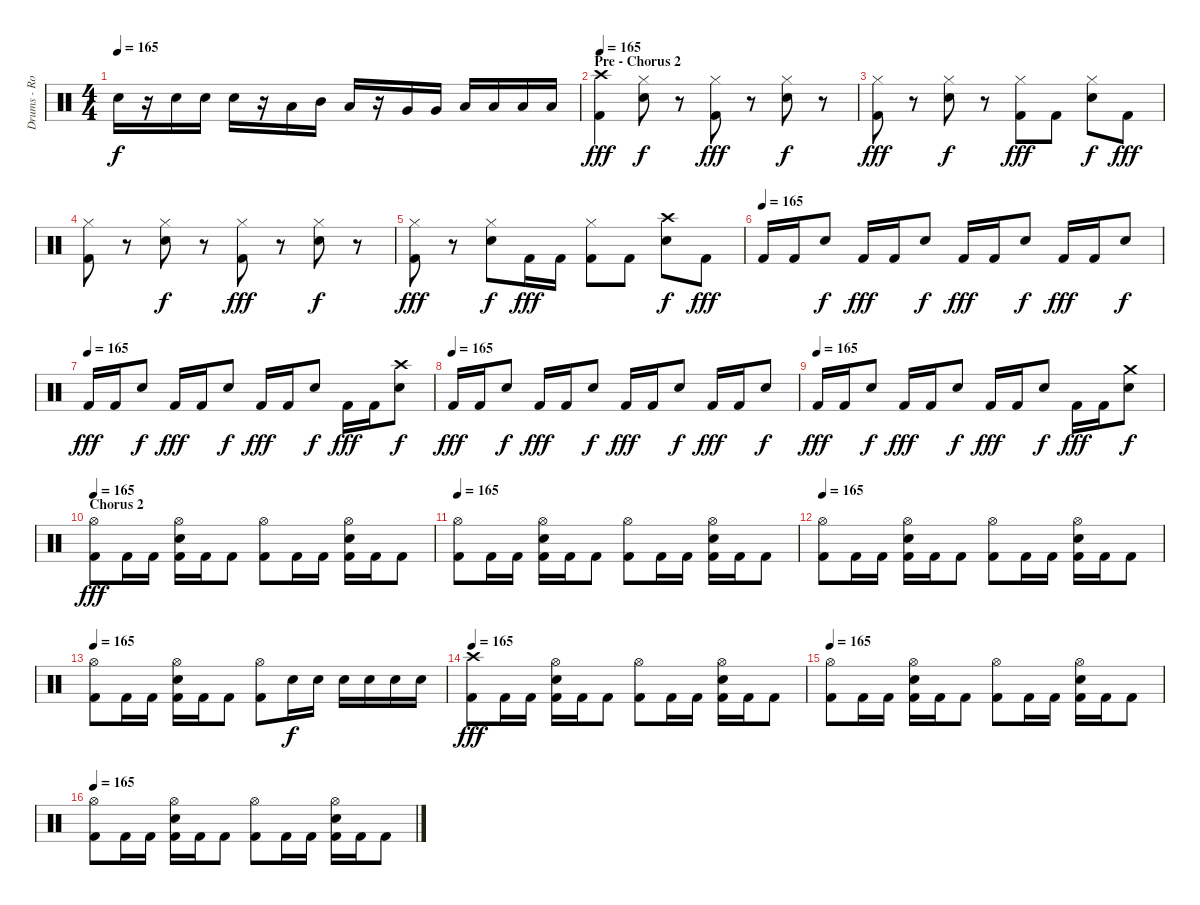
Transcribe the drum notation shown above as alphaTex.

\track ("Drums - Rodrigo" "Drums - Ro") {instrument percussion}
\staff {score}
\articulation defaults
\ts (4 4)
\tempo 165
\clef neutral
\ks c "Electric Snare (hit)".16{dy f}
r.16 "Electric Snare (hit)".16 "Electric Snare (hit)".16 "Electric Snare (hit)".16 r.16 "Low Tom (hit)".16 "Mid Tom (hit)".16 "Low Tom (hit)".16 r.16 "Very Low Tom (hit)".16 "Very Low Tom (hit)".16 "Low Floor Tom (hit)".16 "Low Floor Tom (hit)".16 "Low Floor Tom (hit)".16 "Low Floor Tom (hit)".16 |
\section ("" "Pre - Chorus 2")
\tempo 165
("Crash high (hit)" "Kick (hit) 2").4{dy fff} ("Hi-Hat (closed)" "Electric Snare (hit)").8{dy f} r.8 ("Hi-Hat (closed)" "Kick (hit) 2").8{dy fff} r.8 ("Hi-Hat (closed)" "Electric Snare (hit)").8{dy f} r.8 |
("Hi-Hat (closed)" "Kick (hit) 2").8{dy fff} r.8 ("Hi-Hat (closed)" "Electric Snare (hit)").8{dy f} r.8 ("Hi-Hat (closed)" "Kick (hit) 2").8{dy fff} "Kick (hit) 2".8 ("Hi-Hat (closed)" "Electric Snare (hit)").8{dy f} "Kick (hit) 2".8{dy fff} |
("Hi-Hat (closed)" "Kick (hit) 2").8 r.8 ("Hi-Hat (closed)" "Electric Snare (hit)").8{dy f} r.8 ("Hi-Hat (closed)" "Kick (hit) 2").8{dy fff} r.8 ("Hi-Hat (closed)" "Electric Snare (hit)").8{dy f} r.8 |
("Hi-Hat (closed)" "Kick (hit) 2").8{dy fff} r.8 ("Hi-Hat (closed)" "Electric Snare (hit)").8{dy f} "Kick (hit) 2".16{dy fff} "Kick (hit) 2".16 ("Hi-Hat (closed)" "Kick (hit) 2").8 "Kick (hit) 2".8 ("Crash high (hit)" "Electric Snare (hit)").8{dy f} "Kick (hit) 2".8{dy fff} |
\tempo (165)
"Kick (hit) 2".16 "Kick (hit) 2".16 "Electric Snare (hit)".8{dy f} "Kick (hit) 2".16{dy fff} "Kick (hit) 2".16 "Electric Snare (hit)".8{dy f} "Kick (hit) 2".16{dy fff} "Kick (hit) 2".16 "Electric Snare (hit)".8{dy f} "Kick (hit) 2".16{dy fff} "Kick (hit) 2".16 "Electric Snare (hit)".8{dy f} |
\tempo (165)
"Kick (hit) 2".16{dy fff} "Kick (hit) 2".16 "Electric Snare (hit)".8{dy f} "Kick (hit) 2".16{dy fff} "Kick (hit) 2".16 "Electric Snare (hit)".8{dy f} "Kick (hit) 2".16{dy fff} "Kick (hit) 2".16 "Electric Snare (hit)".8{dy f} "Kick (hit) 2".16{dy fff} "Kick (hit) 2".16 ("Crash high (hit)" "Electric Snare (hit)").8{dy f} |
\tempo (165)
"Kick (hit) 2".16{dy fff} "Kick (hit) 2".16 "Electric Snare (hit)".8{dy f} "Kick (hit) 2".16{dy fff} "Kick (hit) 2".16 "Electric Snare (hit)".8{dy f} "Kick (hit) 2".16{dy fff} "Kick (hit) 2".16 "Electric Snare (hit)".8{dy f} "Kick (hit) 2".16{dy fff} "Kick (hit) 2".16 "Electric Snare (hit)".8{dy f} |
\tempo (165)
"Kick (hit) 2".16{dy fff} "Kick (hit) 2".16 "Electric Snare (hit)".8{dy f} "Kick (hit) 2".16{dy fff} "Kick (hit) 2".16 "Electric Snare (hit)".8{dy f} "Kick (hit) 2".16{dy fff} "Kick (hit) 2".16 "Electric Snare (hit)".8{dy f} "Kick (hit) 2".16{dy fff} "Kick (hit) 2".16 ("Crash medium (hit)" "Electric Snare (hit)").8{dy f} |
\section ("" "Chorus 2")
\tempo 165
("Hi-Hat (open)" "Kick (hit) 2").8{dy fff} "Kick (hit) 2".16 "Kick (hit) 2".16 ("Hi-Hat (open)" "Electric Snare (hit)" "Kick (hit) 2").16 "Kick (hit) 2".16 "Kick (hit) 2".8 ("Hi-Hat (open)" "Kick (hit) 2").8 "Kick (hit) 2".16 "Kick (hit) 2".16 ("Hi-Hat (open)" "Electric Snare (hit)" "Kick (hit) 2").16 "Kick (hit) 2".16 "Kick (hit) 2".8 |
\tempo 165
("Hi-Hat (open)" "Kick (hit) 2").8 "Kick (hit) 2".16 "Kick (hit) 2".16 ("Hi-Hat (open)" "Electric Snare (hit)" "Kick (hit) 2").16 "Kick (hit) 2".16 "Kick (hit) 2".8 ("Hi-Hat (open)" "Kick (hit) 2").8 "Kick (hit) 2".16 "Kick (hit) 2".16 ("Hi-Hat (open)" "Electric Snare (hit)" "Kick (hit) 2").16 "Kick (hit) 2".16 "Kick (hit) 2".8 |
\tempo 165
("Hi-Hat (open)" "Kick (hit) 2").8 "Kick (hit) 2".16 "Kick (hit) 2".16 ("Hi-Hat (open)" "Electric Snare (hit)" "Kick (hit) 2").16 "Kick (hit) 2".16 "Kick (hit) 2".8 ("Hi-Hat (open)" "Kick (hit) 2").8 "Kick (hit) 2".16 "Kick (hit) 2".16 ("Hi-Hat (open)" "Electric Snare (hit)" "Kick (hit) 2").16 "Kick (hit) 2".16 "Kick (hit) 2".8 |
\tempo 165
("Hi-Hat (open)" "Kick (hit) 2").8 "Kick (hit) 2".16 "Kick (hit) 2".16 ("Hi-Hat (open)" "Electric Snare (hit)" "Kick (hit) 2").16 "Kick (hit) 2".16 "Kick (hit) 2".8 ("Hi-Hat (open)" "Kick (hit) 2").8 "Electric Snare (hit)".16{dy f} "Electric Snare (hit)".16 "Electric Snare (hit)".16 "Electric Snare (hit)".16 "Electric Snare (hit)".16 "Electric Snare (hit)".16 |
\tempo 165
("Crash high (hit)" "Kick (hit) 2").8{dy fff} "Kick (hit) 2".16 "Kick (hit) 2".16 ("Hi-Hat (open)" "Electric Snare (hit)" "Kick (hit) 2").16 "Kick (hit) 2".16 "Kick (hit) 2".8 ("Hi-Hat (open)" "Kick (hit) 2").8 "Kick (hit) 2".16 "Kick (hit) 2".16 ("Hi-Hat (open)" "Electric Snare (hit)" "Kick (hit) 2").16 "Kick (hit) 2".16 "Kick (hit) 2".8 |
\tempo 165
("Hi-Hat (open)" "Kick (hit) 2").8 "Kick (hit) 2".16 "Kick (hit) 2".16 ("Hi-Hat (open)" "Electric Snare (hit)" "Kick (hit) 2").16 "Kick (hit) 2".16 "Kick (hit) 2".8 ("Hi-Hat (open)" "Kick (hit) 2").8 "Kick (hit) 2".16 "Kick (hit) 2".16 ("Hi-Hat (open)" "Electric Snare (hit)" "Kick (hit) 2").16 "Kick (hit) 2".16 "Kick (hit) 2".8 |
\tempo 165
("Hi-Hat (open)" "Kick (hit) 2").8 "Kick (hit) 2".16 "Kick (hit) 2".16 ("Hi-Hat (open)" "Electric Snare (hit)" "Kick (hit) 2").16 "Kick (hit) 2".16 "Kick (hit) 2".8 ("Hi-Hat (open)" "Kick (hit) 2").8 "Kick (hit) 2".16 "Kick (hit) 2".16 ("Hi-Hat (open)" "Electric Snare (hit)" "Kick (hit) 2").16 "Kick (hit) 2".16 "Kick (hit) 2".8
